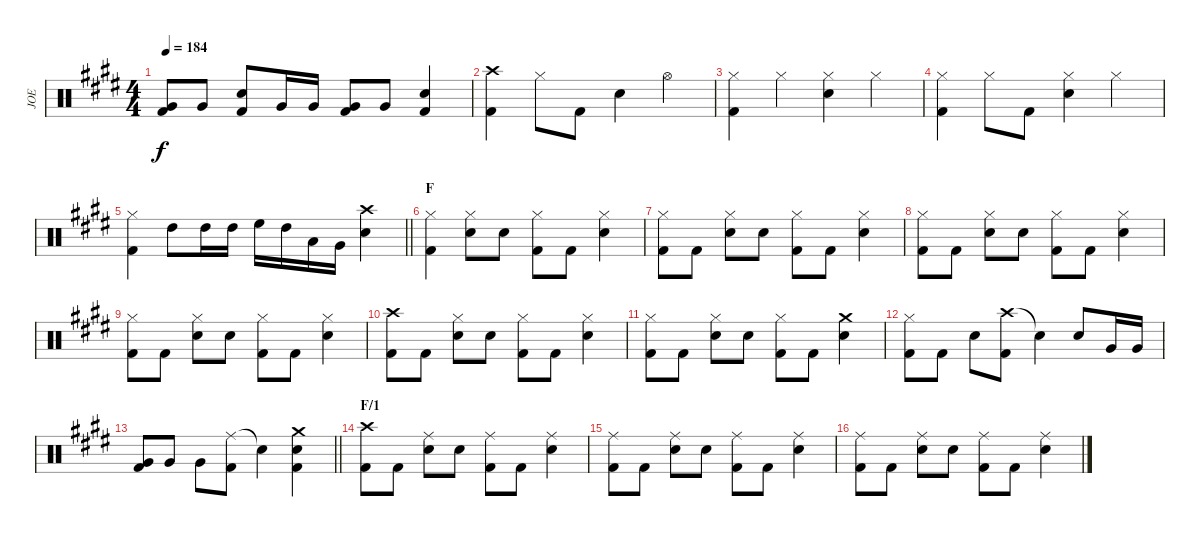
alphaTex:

\track ("JOE" "JOE") {instrument percussion}
\staff {score}
\articulation defaults
\ts (4 4)
\tempo 184
\clef neutral
\ks e
("Kick (hit) 2" "Very Low Tom (hit)").8{dy f} "Very Low Tom (hit)".8 ("Kick (hit) 2" "Snare (hit) 2").8 "Very Low Tom (hit)".16 "Very Low Tom (hit)".16 ("Very Low Tom (hit)" "Kick (hit) 2").8 "Very Low Tom (hit)".8 ("Kick (hit) 2" "Snare (hit) 2").4 |
("Crash high (hit)" "Kick (hit) 2").4 "Hi-Hat (closed)".8 "Kick (hit) 2".8 "Snare (hit) 2".4 "Hi-Hat (open)".4 |
("Hi-Hat (closed)" "Kick (hit) 2").4 "Hi-Hat (closed)".4 ("Hi-Hat (closed)" "Snare (hit) 2").4 "Hi-Hat (closed)".4 |
("Hi-Hat (closed)" "Kick (hit) 2").4 "Hi-Hat (closed)".8 "Kick (hit) 2".8 ("Hi-Hat (closed)" "Snare (hit) 2").4 "Hi-Hat (closed)".4 |
\barLineRight lightlight
("Hi-Hat (closed)" "Kick (hit) 2").4 "High Tom (hit)".8 "High Tom (hit)".16 "High Tom (hit)".16 "High Floor Tom (hit)".16 "High Tom (hit)".16 "Low Tom (hit)".16 "Very Low Tom (hit)".16 ("Crash high (hit)" "Snare (hit) 2").4 |
\section ("" "F")
("Hi-Hat (closed)" "Kick (hit) 2").4 ("Hi-Hat (closed)" "Snare (hit) 2").8 "Snare (hit) 2".8 ("Hi-Hat (closed)" "Kick (hit) 2").8 "Kick (hit) 2".8 ("Hi-Hat (closed)" "Snare (hit) 2").4 |
("Hi-Hat (closed)" "Kick (hit) 2").8 "Kick (hit) 2".8 ("Hi-Hat (closed)" "Snare (hit) 2").8 "Snare (hit) 2".8 ("Hi-Hat (closed)" "Kick (hit) 2").8 "Kick (hit) 2".8 ("Hi-Hat (closed)" "Snare (hit) 2").4 |
("Hi-Hat (closed)" "Kick (hit) 2").8 "Kick (hit) 2".8 ("Hi-Hat (closed)" "Snare (hit) 2").8 "Snare (hit) 2".8 ("Hi-Hat (closed)" "Kick (hit) 2").8 "Kick (hit) 2".8 ("Hi-Hat (closed)" "Snare (hit) 2").4 |
("Hi-Hat (closed)" "Kick (hit) 2").8 "Kick (hit) 2".8 ("Hi-Hat (closed)" "Snare (hit) 2").8 "Snare (hit) 2".8 ("Hi-Hat (closed)" "Kick (hit) 2").8 "Kick (hit) 2".8 ("Hi-Hat (closed)" "Snare (hit) 2").4 |
("Crash high (hit)" "Kick (hit) 2").8 "Kick (hit) 2".8 ("Hi-Hat (closed)" "Snare (hit) 2").8 "Snare (hit) 2".8 ("Hi-Hat (closed)" "Kick (hit) 2").8 "Kick (hit) 2".8 ("Hi-Hat (closed)" "Snare (hit) 2").4 |
("Hi-Hat (closed)" "Kick (hit) 2").8 "Kick (hit) 2".8 ("Hi-Hat (closed)" "Snare (hit) 2").8 "Snare (hit) 2".8 ("Hi-Hat (closed)" "Kick (hit) 2").8 "Kick (hit) 2".8 ("Crash medium (hit)" "Snare (hit) 2").4 |
("Hi-Hat (closed)" "Kick (hit) 2").8 "Kick (hit) 2".8 "Snare (hit) 2".8 ("Crash high (hit)" "Kick (hit) 2").8 "Snare (hit)"{t}.4 "Snare (hit) 2".8 "Very Low Tom (hit)".16 "Very Low Tom (hit)".16 |
\barLineRight lightlight
("Very Low Tom (hit)" "Kick (hit) 2").8 "Very Low Tom (hit)".8 "Very Low Tom (hit)".8 ("Ride (middle)" "Kick (hit) 2").8 "Snare (hit)"{t}.4 ("Crash medium (hit)" "Snare (hit) 2" "Kick (hit) 2").4 |
\section ("" "F/1")
("Crash high (hit)" "Kick (hit) 2").8 "Kick (hit) 2".8 ("Ride (middle)" "Snare (hit) 2").8 "Snare (hit) 2".8 ("Ride (middle)" "Kick (hit) 2").8 "Kick (hit) 2".8 ("Ride (middle)" "Snare (hit) 2").4 |
("Ride (middle)" "Kick (hit) 2").8 "Kick (hit) 2".8 ("Ride (middle)" "Snare (hit) 2").8 "Snare (hit) 2".8 ("Ride (middle)" "Kick (hit) 2").8 "Kick (hit) 2".8 ("Ride (middle)" "Snare (hit) 2").4 |
("Ride (middle)" "Kick (hit) 2").8 "Kick (hit) 2".8 ("Ride (middle)" "Snare (hit) 2").8 "Snare (hit) 2".8 ("Ride (middle)" "Kick (hit) 2").8 "Kick (hit) 2".8 ("Ride (middle)" "Snare (hit) 2").4
